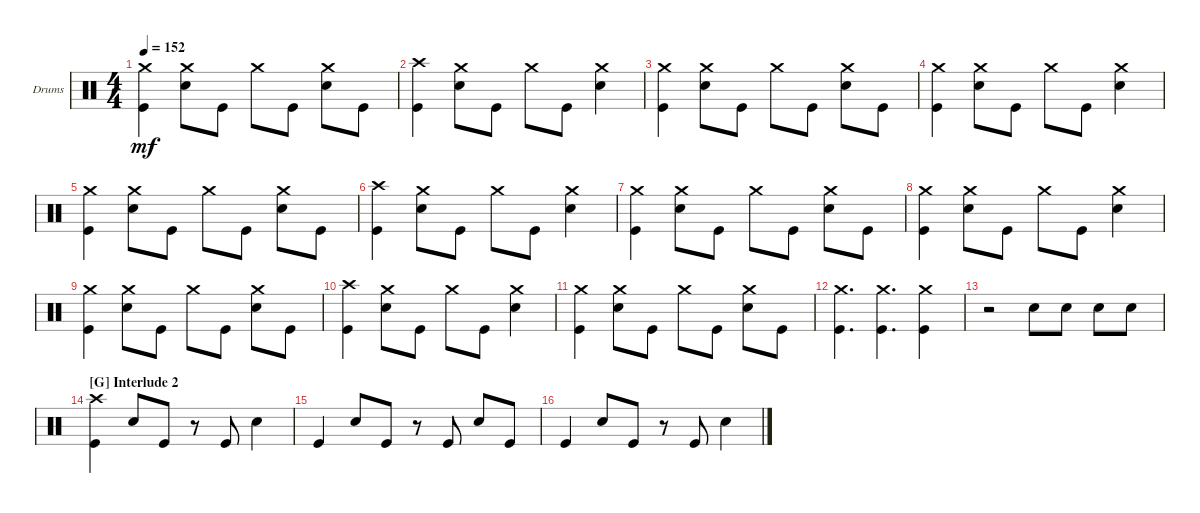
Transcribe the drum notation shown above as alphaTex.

\defaultSystemsLayout 4
\bracketExtendMode groupsimilarinstruments
\firstSystemTrackNameOrientation horizontal
\otherSystemsTrackNameOrientation horizontal
\track ("Drums" "Drums") {instrument percussion}
\staff {score}
\articulation defaults
\ts (4 4)
\tempo 152
\clef neutral
\ks c
("Kick (hit)" "Crash medium (hit)").4{dy mf} ("Snare (hit) 2" "Crash medium (hit)").8 "Kick (hit)".8 "Crash medium (hit)".8 "Kick (hit)".8 ("Snare (hit) 2" "Crash medium (hit)").8 "Kick (hit)".8 |
("Kick (hit)" "Crash high (hit)").4 ("Snare (hit) 2" "Crash medium (hit)").8 "Kick (hit)".8 "Crash medium (hit)".8 "Kick (hit)".8 ("Snare (hit) 2" "Crash medium (hit)").4 |
("Kick (hit)" "Crash medium (hit)").4 ("Snare (hit) 2" "Crash medium (hit)").8 "Kick (hit)".8 "Crash medium (hit)".8 "Kick (hit)".8 ("Snare (hit) 2" "Crash medium (hit)").8 "Kick (hit)".8 |
("Kick (hit)" "Crash medium (hit)").4 ("Snare (hit) 2" "Crash medium (hit)").8 "Kick (hit)".8 "Crash medium (hit)".8 "Kick (hit)".8 ("Snare (hit) 2" "Crash medium (hit)").4 |
("Kick (hit)" "Crash medium (hit)").4 ("Snare (hit) 2" "Crash medium (hit)").8 "Kick (hit)".8 "Crash medium (hit)".8 "Kick (hit)".8 ("Snare (hit) 2" "Crash medium (hit)").8 "Kick (hit)".8 |
("Kick (hit)" "Crash high (hit)").4 ("Snare (hit) 2" "Crash medium (hit)").8 "Kick (hit)".8 "Crash medium (hit)".8 "Kick (hit)".8 ("Snare (hit) 2" "Crash medium (hit)").4 |
("Kick (hit)" "Crash medium (hit)").4 ("Snare (hit) 2" "Crash medium (hit)").8 "Kick (hit)".8 "Crash medium (hit)".8 "Kick (hit)".8 ("Snare (hit) 2" "Crash medium (hit)").8 "Kick (hit)".8 |
("Kick (hit)" "Crash medium (hit)").4 ("Snare (hit) 2" "Crash medium (hit)").8 "Kick (hit)".8 "Crash medium (hit)".8 "Kick (hit)".8 ("Snare (hit) 2" "Crash medium (hit)").4 |
("Kick (hit)" "Crash medium (hit)").4 ("Snare (hit) 2" "Crash medium (hit)").8 "Kick (hit)".8 "Crash medium (hit)".8 "Kick (hit)".8 ("Snare (hit) 2" "Crash medium (hit)").8 "Kick (hit)".8 |
("Kick (hit)" "Crash high (hit)").4 ("Snare (hit) 2" "Crash medium (hit)").8 "Kick (hit)".8 "Crash medium (hit)".8 "Kick (hit)".8 ("Snare (hit) 2" "Crash medium (hit)").4 |
("Kick (hit)" "Crash medium (hit)").4 ("Snare (hit) 2" "Crash medium (hit)").8 "Kick (hit)".8 "Crash medium (hit)".8 "Kick (hit)".8 ("Snare (hit) 2" "Crash medium (hit)").8 "Kick (hit)".8 |
("Kick (hit)" "Crash medium (hit)").4{d} ("Kick (hit)" "Crash medium (hit)").4{d} ("Crash medium (hit)" "Kick (hit)").4 |
r.2 "Snare (hit) 2".8 "Snare (hit) 2".8 "Snare (hit) 2".8 "Snare (hit) 2".8 |
\section ("G" "Interlude 2")
("Kick (hit)" "Crash high (hit)").4 "Snare (hit) 2".8 "Kick (hit)".8 r.8 "Kick (hit)".8 "Snare (hit) 2".4 |
"Kick (hit)".4 "Snare (hit) 2".8 "Kick (hit)".8 r.8 "Kick (hit)".8 "Snare (hit) 2".8 "Kick (hit)".8 |
"Kick (hit)".4 "Snare (hit) 2".8 "Kick (hit)".8 r.8 "Kick (hit)".8 "Snare (hit) 2".4
